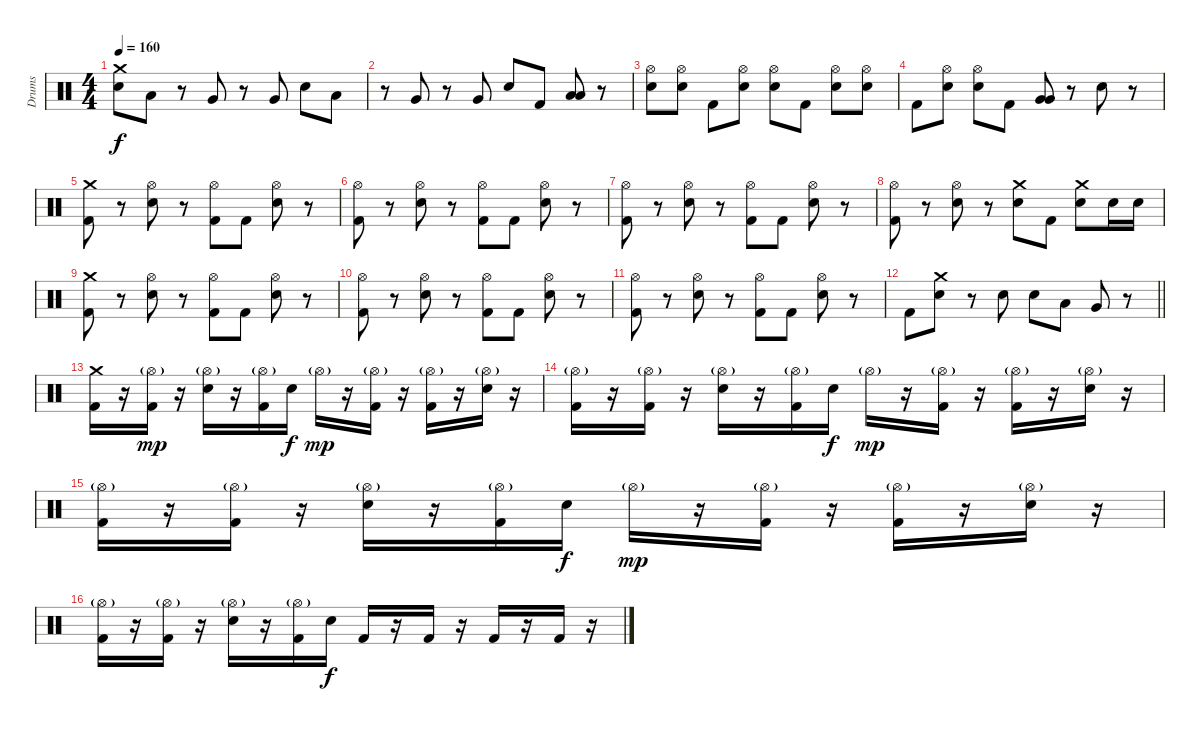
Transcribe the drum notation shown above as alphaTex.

\track ("Drums" "Drums") {instrument percussion}
\staff {score}
\articulation defaults
\ts (4 4)
\tempo 160
\clef neutral
\ks c
("Crash medium (hit)" "Electric Snare (hit)").8{dy f} "Low Tom (hit)".8 r.8 "Very Low Tom (hit)".8 r.8 "Very Low Tom (hit)".8 "Electric Snare (hit)".8 "Low Tom (hit)".8 |
r.8 "Very Low Tom (hit)".8 r.8 "Very Low Tom (hit)".8 "Electric Snare (hit)".8 "Kick (hit) 2".8 ("Low Tom (hit)" "Low Tom (hit)").8 r.8 |
("Hi-Hat (open)" "Electric Snare (hit)").8 ("Hi-Hat (open)" "Electric Snare (hit)").8 "Kick (hit) 2".8 ("Hi-Hat (open)" "Electric Snare (hit)").8 ("Hi-Hat (open)" "Electric Snare (hit)").8 "Kick (hit) 2".8 ("Hi-Hat (open)" "Electric Snare (hit)").8 ("Hi-Hat (open)" "Electric Snare (hit)").8 |
"Kick (hit) 2".8 ("Hi-Hat (open)" "Electric Snare (hit)").8 ("Hi-Hat (open)" "Electric Snare (hit)").8 "Kick (hit) 2".8 ("Very Low Tom (hit)" "Very Low Tom (hit)").8 r.8 "Electric Snare (hit)".8 r.8 |
("Crash medium (hit)" "Kick (hit) 2").8 r.8 ("Hi-Hat (open)" "Electric Snare (hit)").8 r.8 ("Hi-Hat (open)" "Kick (hit) 2").8 "Kick (hit) 2".8 ("Hi-Hat (open)" "Electric Snare (hit)").8 r.8 |
("Hi-Hat (open)" "Kick (hit) 2").8 r.8 ("Hi-Hat (open)" "Electric Snare (hit)").8 r.8 ("Hi-Hat (open)" "Kick (hit) 2").8 "Kick (hit) 2".8 ("Hi-Hat (open)" "Electric Snare (hit)").8 r.8 |
("Hi-Hat (open)" "Kick (hit) 2").8 r.8 ("Hi-Hat (open)" "Electric Snare (hit)").8 r.8 ("Hi-Hat (open)" "Kick (hit) 2").8 "Kick (hit) 2".8 ("Hi-Hat (open)" "Electric Snare (hit)").8 r.8 |
("Hi-Hat (open)" "Kick (hit) 2").8 r.8 ("Hi-Hat (open)" "Electric Snare (hit)").8 r.8 ("Crash medium (hit)" "Electric Snare (hit)").8 "Kick (hit) 2".8 ("Crash medium (hit)" "Electric Snare (hit)").8 "Electric Snare (hit)".16 "Electric Snare (hit)".16 |
("Crash medium (hit)" "Kick (hit) 2").8 r.8 ("Hi-Hat (open)" "Electric Snare (hit)").8 r.8 ("Hi-Hat (open)" "Kick (hit) 2").8 "Kick (hit) 2".8 ("Hi-Hat (open)" "Electric Snare (hit)").8 r.8 |
("Hi-Hat (open)" "Kick (hit) 2").8 r.8 ("Hi-Hat (open)" "Electric Snare (hit)").8 r.8 ("Hi-Hat (open)" "Kick (hit) 2").8 "Kick (hit) 2".8 ("Hi-Hat (open)" "Electric Snare (hit)").8 r.8 |
("Hi-Hat (open)" "Kick (hit) 2").8 r.8 ("Hi-Hat (open)" "Electric Snare (hit)").8 r.8 ("Hi-Hat (open)" "Kick (hit) 2").8 "Kick (hit) 2".8 ("Hi-Hat (open)" "Electric Snare (hit)").8 r.8 |
\barLineRight lightlight "Kick (hit) 2".8
("Crash medium (hit)" "Electric Snare (hit)").8 r.8 "Electric Snare (hit)".8 "Electric Snare (hit)".8 "Low Tom (hit)".8 "Very Low Tom (hit)".8 r.8 |
\section ("" "")
("Crash medium (hit)" "Kick (hit) 2").16 r.16 ("Hi-Hat (open)"{g} "Kick (hit) 2").16{dy mp} r.16 ("Hi-Hat (open)"{g} "Electric Snare (hit)").16 r.16 ("Hi-Hat (open)"{g} "Kick (hit) 2").16 "Electric Snare (hit)".16{dy f} "Hi-Hat (open)"{g}.16{dy mp} r.16 ("Hi-Hat (open)"{g} "Kick (hit) 2").16 r.16 ("Hi-Hat (open)"{g} "Kick (hit) 2").16 r.16 ("Hi-Hat (open)"{g} "Electric Snare (hit)").16 r.16 |
("Hi-Hat (open)"{g} "Kick (hit) 2").16 r.16 ("Hi-Hat (open)"{g} "Kick (hit) 2").16 r.16 ("Hi-Hat (open)"{g} "Electric Snare (hit)").16 r.16 ("Hi-Hat (open)"{g} "Kick (hit) 2").16 "Electric Snare (hit)".16{dy f} "Hi-Hat (open)"{g}.16{dy mp} r.16 ("Hi-Hat (open)"{g} "Kick (hit) 2").16 r.16 ("Hi-Hat (open)"{g} "Kick (hit) 2").16 r.16 ("Hi-Hat (open)"{g} "Electric Snare (hit)").16 r.16 |
("Hi-Hat (open)"{g} "Kick (hit) 2").16 r.16 ("Hi-Hat (open)"{g} "Kick (hit) 2").16 r.16 ("Hi-Hat (open)"{g} "Electric Snare (hit)").16 r.16 ("Hi-Hat (open)"{g} "Kick (hit) 2").16 "Electric Snare (hit)".16{dy f} "Hi-Hat (open)"{g}.16{dy mp} r.16 ("Hi-Hat (open)"{g} "Kick (hit) 2").16 r.16 ("Hi-Hat (open)"{g} "Kick (hit) 2").16 r.16 ("Hi-Hat (open)"{g} "Electric Snare (hit)").16 r.16 |
("Hi-Hat (open)"{g} "Kick (hit) 2").16 r.16 ("Hi-Hat (open)"{g} "Kick (hit) 2").16 r.16 ("Hi-Hat (open)"{g} "Electric Snare (hit)").16 r.16 ("Hi-Hat (open)"{g} "Kick (hit) 2").16 "Electric Snare (hit)".16{dy f} "Kick (hit) 2".16 r.16 "Kick (hit) 2".16 r.16 "Kick (hit) 2".16 r.16 "Kick (hit) 2".16 r.16
